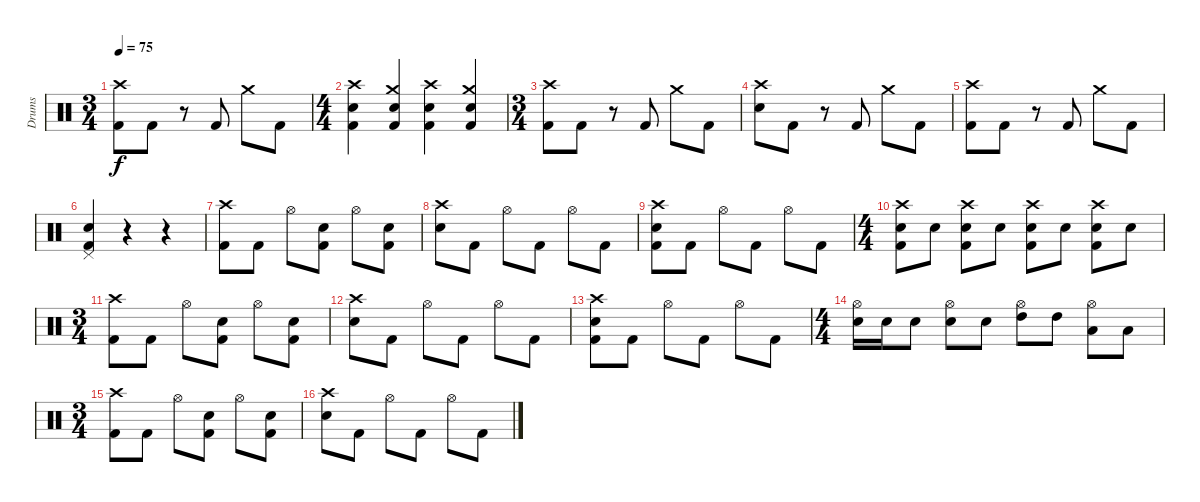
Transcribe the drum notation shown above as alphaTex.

\track ("Drums" "Drums") {instrument percussion}
\staff {score}
\articulation defaults
\ts (3 4)
\tempo 75
\clef neutral
\ks c
("Crash high (hit)" "Kick (hit) 2").8{dy f} "Kick (hit) 2".8 r.8 "Kick (hit) 2".8 "Crash medium (hit)".8 "Kick (hit) 2".8 |
\ts (4 4)
("Crash high (hit)" "Electric Snare (hit)" "Kick (hit) 2").4 ("Crash medium (hit)" "Electric Snare (hit)" "Kick (hit) 2").4 ("Crash high (hit)" "Electric Snare (hit)" "Kick (hit) 2").4 ("Crash medium (hit)" "Electric Snare (hit)" "Kick (hit) 2").4 |
\ts (3 4)
("Crash high (hit)" "Kick (hit) 2").8 "Kick (hit) 2".8 r.8 "Kick (hit) 2".8 "Crash medium (hit)".8 "Kick (hit) 2".8 |
("Crash high (hit)" "Electric Snare (hit)").8 "Kick (hit) 2".8 r.8 "Kick (hit) 2".8 "Crash medium (hit)".8 "Kick (hit) 2".8 |
("Crash high (hit)" "Kick (hit) 2").8 "Kick (hit) 2".8 r.8 "Kick (hit) 2".8 "Crash medium (hit)".8 "Kick (hit) 2".8 |
("Pedal Hi-Hat (hit)" "Electric Snare (hit)" "Kick (hit) 2").4 r.4 r.4 |
("Crash high (hit)" "Kick (hit) 2").8 "Kick (hit) 2".8 "Hi-Hat (open)".8 ("Electric Snare (hit)" "Kick (hit) 2").8 "Hi-Hat (open)".8 ("Electric Snare (hit)" "Kick (hit) 2").8 |
("Crash high (hit)" "Electric Snare (hit)").8 "Kick (hit) 2".8 "Hi-Hat (open)".8 "Kick (hit) 2".8 "Hi-Hat (open)".8 "Kick (hit) 2".8 |
("Crash high (hit)" "Electric Snare (hit)" "Kick (hit) 2").8 "Kick (hit) 2".8 "Hi-Hat (open)".8 "Kick (hit) 2".8 "Hi-Hat (open)".8 "Kick (hit) 2".8 |
\ts (4 4)
("Crash high (hit)" "Electric Snare (hit)" "Kick (hit) 2").8 "Electric Snare (hit)".8 ("Crash high (hit)" "Electric Snare (hit)" "Kick (hit) 2").8 "Electric Snare (hit)".8 ("Crash high (hit)" "Electric Snare (hit)" "Kick (hit) 2").8 "Electric Snare (hit)".8 ("Crash high (hit)" "Electric Snare (hit)" "Kick (hit) 2").8 "Electric Snare (hit)".8 |
\ts (3 4)
("Crash high (hit)" "Kick (hit) 2").8 "Kick (hit) 2".8 "Hi-Hat (open)".8 ("Electric Snare (hit)" "Kick (hit) 2").8 "Hi-Hat (open)".8 ("Electric Snare (hit)" "Kick (hit) 2").8 |
("Crash high (hit)" "Electric Snare (hit)").8 "Kick (hit) 2".8 "Hi-Hat (open)".8 "Kick (hit) 2".8 "Hi-Hat (open)".8 "Kick (hit) 2".8 |
("Crash high (hit)" "Electric Snare (hit)" "Kick (hit) 2").8 "Kick (hit) 2".8 "Hi-Hat (open)".8 "Kick (hit) 2".8 "Hi-Hat (open)".8 "Kick (hit) 2".8 |
\ts (4 4)
("Hi-Hat (open)" "Electric Snare (hit)").16 "Electric Snare (hit)".16 "Electric Snare (hit)".8 ("Hi-Hat (open)" "Electric Snare (hit)").8 "Electric Snare (hit)".8 ("Hi-Hat (open)" "High Tom (hit)").8 "High Tom (hit)".8 ("Hi-Hat (open)" "Low Tom (hit)").8 "Low Tom (hit)".8 |
\ts (3 4)
("Crash high (hit)" "Kick (hit) 2").8 "Kick (hit) 2".8 "Hi-Hat (open)".8 ("Electric Snare (hit)" "Kick (hit) 2").8 "Hi-Hat (open)".8 ("Electric Snare (hit)" "Kick (hit) 2").8 |
("Crash high (hit)" "Electric Snare (hit)").8 "Kick (hit) 2".8 "Hi-Hat (open)".8 "Kick (hit) 2".8 "Hi-Hat (open)".8 "Kick (hit) 2".8
